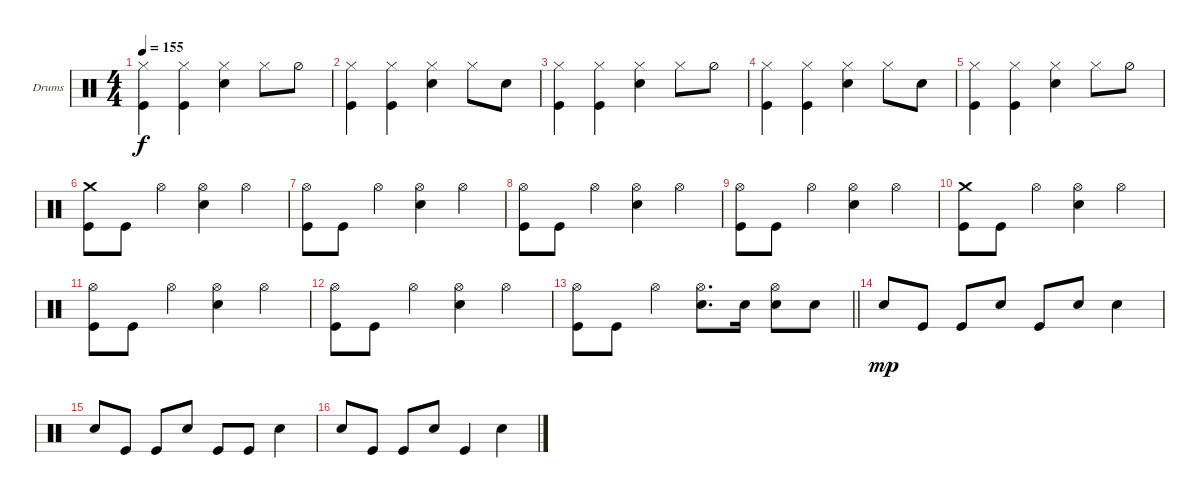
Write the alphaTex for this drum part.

\defaultSystemsLayout 4
\bracketExtendMode groupsimilarinstruments
\firstSystemTrackNameOrientation horizontal
\otherSystemsTrackNameOrientation horizontal
\track ("Drumkit" "Drums") {instrument percussion}
\staff {score}
\articulation defaults
\ts (4 4)
\tempo 155
\clef neutral
\ks c
("Hi-Hat (closed)" "Kick (hit)").4{dy f} ("Hi-Hat (closed)" "Kick (hit)").4 ("Hi-Hat (closed)" "Snare (hit) 2").4 "Hi-Hat (closed)".8 "Hi-Hat (half)".8 |
("Hi-Hat (closed)" "Kick (hit)").4 ("Hi-Hat (closed)" "Kick (hit)").4 ("Hi-Hat (closed)" "Snare (hit) 2").4 "Hi-Hat (closed)".8 "Snare (hit) 2".8 |
("Hi-Hat (closed)" "Kick (hit)").4 ("Hi-Hat (closed)" "Kick (hit)").4 ("Hi-Hat (closed)" "Snare (hit) 2").4 "Hi-Hat (closed)".8 "Hi-Hat (half)".8 |
("Hi-Hat (closed)" "Kick (hit)").4 ("Hi-Hat (closed)" "Kick (hit)").4 ("Hi-Hat (closed)" "Snare (hit) 2").4 "Hi-Hat (closed)".8 "Snare (hit) 2".8 |
("Hi-Hat (closed)" "Kick (hit)").4 ("Hi-Hat (closed)" "Kick (hit)").4 ("Hi-Hat (closed)" "Snare (hit) 2").4 "Hi-Hat (closed)".8 "Hi-Hat (half)".8 |
("Crash medium (hit)" "Kick (hit)").8 "Kick (hit)".8 "Hi-Hat (open)".4 ("Snare (hit) 2" "Hi-Hat (open)").4 "Hi-Hat (open)".4 |
("Kick (hit)" "Hi-Hat (open)").8 "Kick (hit)".8 "Hi-Hat (open)".4 ("Hi-Hat (open)" "Snare (hit) 2").4 "Hi-Hat (open)".4 |
("Kick (hit)" "Hi-Hat (open)").8 "Kick (hit)".8 "Hi-Hat (open)".4 ("Hi-Hat (open)" "Snare (hit) 2").4 "Hi-Hat (open)".4 |
("Kick (hit)" "Hi-Hat (open)").8 "Kick (hit)".8 "Hi-Hat (open)".4 ("Hi-Hat (open)" "Snare (hit) 2").4 "Hi-Hat (open)".4 |
("Crash medium (hit)" "Kick (hit)").8 "Kick (hit)".8 "Hi-Hat (open)".4 ("Snare (hit) 2" "Hi-Hat (open)").4 "Hi-Hat (open)".4 |
("Kick (hit)" "Hi-Hat (open)").8 "Kick (hit)".8 "Hi-Hat (open)".4 ("Hi-Hat (open)" "Snare (hit) 2").4 "Hi-Hat (open)".4 |
("Kick (hit)" "Hi-Hat (open)").8 "Kick (hit)".8 "Hi-Hat (open)".4 ("Hi-Hat (open)" "Snare (hit) 2").4 "Hi-Hat (open)".4 |
\barLineRight lightlight
("Kick (hit)" "Hi-Hat (open)").8 "Kick (hit)".8 "Hi-Hat (open)".4 ("Hi-Hat (open)" "Snare (hit) 2").8{d} "Snare (hit) 2".16 ("Hi-Hat (open)" "Snare (hit) 2").8 "Snare (hit) 2".8 |
"Snare (hit) 2".8{dy mp} "Kick (hit)".8 "Kick (hit)".8 "Snare (hit) 2".8 "Kick (hit)".8 "Snare (hit) 2".8 "Snare (hit) 2".4 |
"Snare (hit) 2".8 "Kick (hit)".8 "Kick (hit)".8 "Snare (hit) 2".8 "Kick (hit)".8 "Kick (hit)".8 "Snare (hit) 2".4 |
"Snare (hit) 2".8 "Kick (hit)".8 "Kick (hit)".8 "Snare (hit) 2".8 "Kick (hit)".4 "Snare (hit) 2".4
